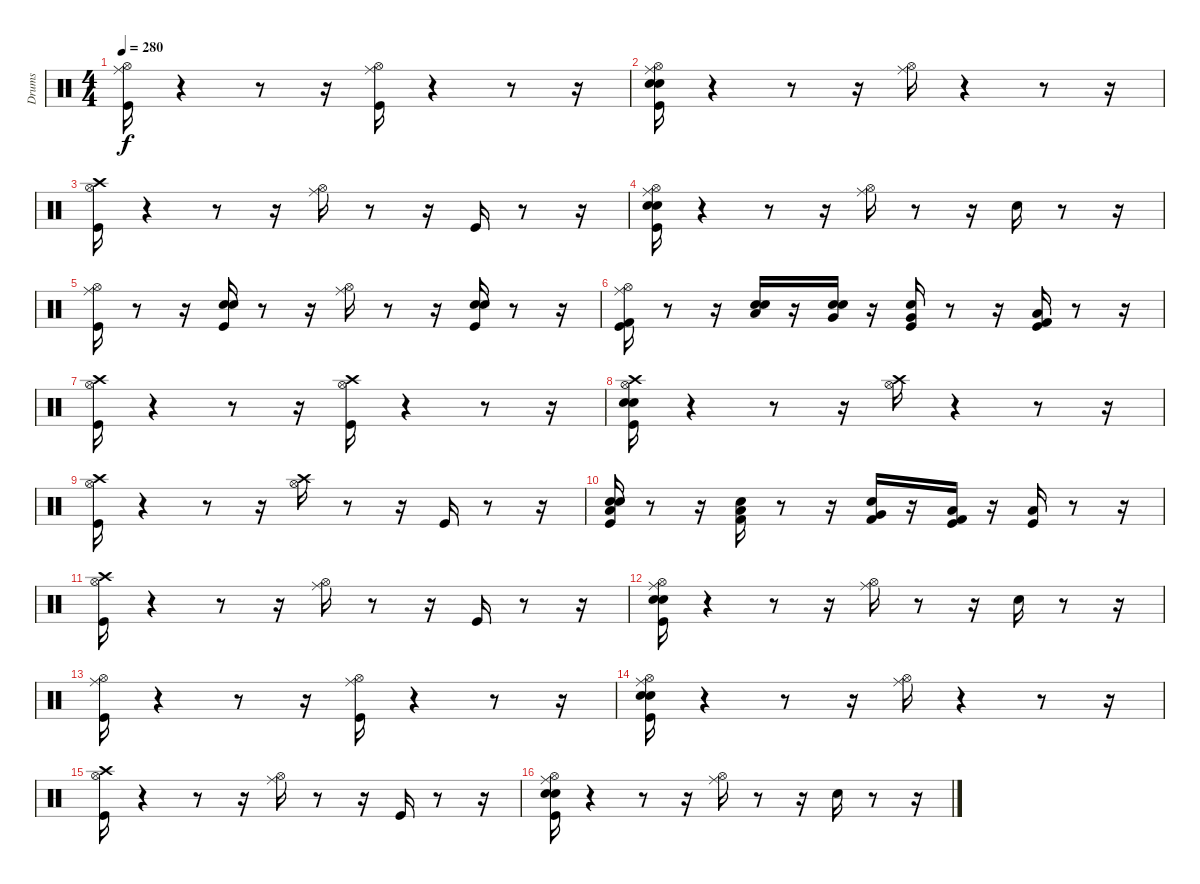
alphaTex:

\track ("Drums" "Drums") {instrument percussion}
\staff {score}
\articulation defaults
\ts (4 4)
\tempo 280
\clef neutral
\ks c
("Ride (middle)" "Hi-Hat (open)" "Kick (hit)").16{dy f} r.4 r.8 r.16 ("Hi-Hat (open)" "Ride (middle)" "Kick (hit)").16 r.4 r.8 r.16 |
("Ride (middle)" "Hi-Hat (open)" "Kick (hit)" "Snare (hit) 2" "Electric Snare (hit)").16 r.4 r.8 r.16 ("Hi-Hat (open)" "Ride (middle)").16 r.4 r.8 r.16 |
("Crash high (hit)" "Hi-Hat (open)" "Kick (hit)").16 r.4 r.8 r.16 ("Hi-Hat (open)" "Ride (middle)").16 r.8 r.16 "Kick (hit)".16 r.8 r.16 |
("Hi-Hat (open)" "Kick (hit)" "Snare (hit) 2" "Electric Snare (hit)" "Ride (middle)").16 r.4 r.8 r.16 ("Hi-Hat (open)" "Ride (middle)").16 r.8 r.16 "Snare (hit) 2".16 r.8 r.16 |
("Ride (middle)" "Hi-Hat (open)" "Kick (hit)").16 r.8 r.16 ("Electric Snare (hit)" "Snare (hit) 2" "Kick (hit)").16 r.8 r.16 ("Ride (middle)" "Hi-Hat (open)").16 r.8 r.16 ("Electric Snare (hit)" "Snare (hit) 2" "Kick (hit)").16 r.8 r.16 |
("Kick (hit)" "Kick (hit) 2" "Hi-Hat (open)" "Ride (middle)").16 r.8 r.16 ("Snare (hit) 2" "Electric Snare (hit)" "Low Tom (hit)").16 r.16 ("Electric Snare (hit)" "Snare (hit) 2" "Very Low Tom (hit)").16 r.16 ("Snare (hit) 2" "Very Low Tom (hit)" "Kick (hit)").16 r.8 r.16 ("Kick (hit)" "Kick (hit) 2" "Low Floor Tom (hit)").16 r.8 r.16 |
("Kick (hit)" "Hi-Hat (open)" "Crash high (hit)").16 r.4 r.8 r.16 ("Crash high (hit)" "Hi-Hat (open)" "Kick (hit)").16 r.4 r.8 r.16 |
("Kick (hit)" "Electric Snare (hit)" "Snare (hit) 2" "Crash high (hit)" "Hi-Hat (open)").16 r.4 r.8 r.16 ("Hi-Hat (open)" "Crash high (hit)").16 r.4 r.8 r.16 |
("Kick (hit)" "Hi-Hat (open)" "Crash high (hit)").16 r.4 r.8 r.16 ("Hi-Hat (open)" "Crash high (hit)").16 r.8 r.16 "Kick (hit)".16 r.8 r.16 |
("Electric Snare (hit)" "Snare (hit) 2" "Kick (hit)" "Low Tom (hit)").16 r.8 r.16 ("Snare (hit) 2" "Kick (hit) 2" "Low Tom (hit)").16 r.8 r.16 ("Snare (hit) 2" "Kick (hit) 2" "Very Low Tom (hit)").16 r.16 ("Kick (hit) 2" "Kick (hit)" "Low Floor Tom (hit)").16 r.16 ("Kick (hit)" "Low Floor Tom (hit)").16 r.8 r.16 |
("Kick (hit)" "Hi-Hat (open)" "Crash high (hit)").16 r.4 r.8 r.16 ("Hi-Hat (open)" "Ride (middle)").16 r.8 r.16 "Kick (hit)".16 r.8 r.16 |
("Hi-Hat (open)" "Kick (hit)" "Snare (hit) 2" "Electric Snare (hit)" "Ride (middle)").16 r.4 r.8 r.16 ("Hi-Hat (open)" "Ride (middle)").16 r.8 r.16 "Snare (hit) 2".16 r.8 r.16 |
("Ride (middle)" "Hi-Hat (open)" "Kick (hit)").16 r.4 r.8 r.16 ("Hi-Hat (open)" "Ride (middle)" "Kick (hit)").16 r.4 r.8 r.16 |
("Ride (middle)" "Hi-Hat (open)" "Kick (hit)" "Snare (hit) 2" "Electric Snare (hit)").16 r.4 r.8 r.16 ("Hi-Hat (open)" "Ride (middle)").16 r.4 r.8 r.16 |
("Kick (hit)" "Hi-Hat (open)" "Crash high (hit)").16 r.4 r.8 r.16 ("Hi-Hat (open)" "Ride (middle)").16 r.8 r.16 "Kick (hit)".16 r.8 r.16 |
("Hi-Hat (open)" "Kick (hit)" "Snare (hit) 2" "Electric Snare (hit)" "Ride (middle)").16 r.4 r.8 r.16 ("Hi-Hat (open)" "Ride (middle)").16 r.8 r.16 "Snare (hit) 2".16 r.8 r.16
